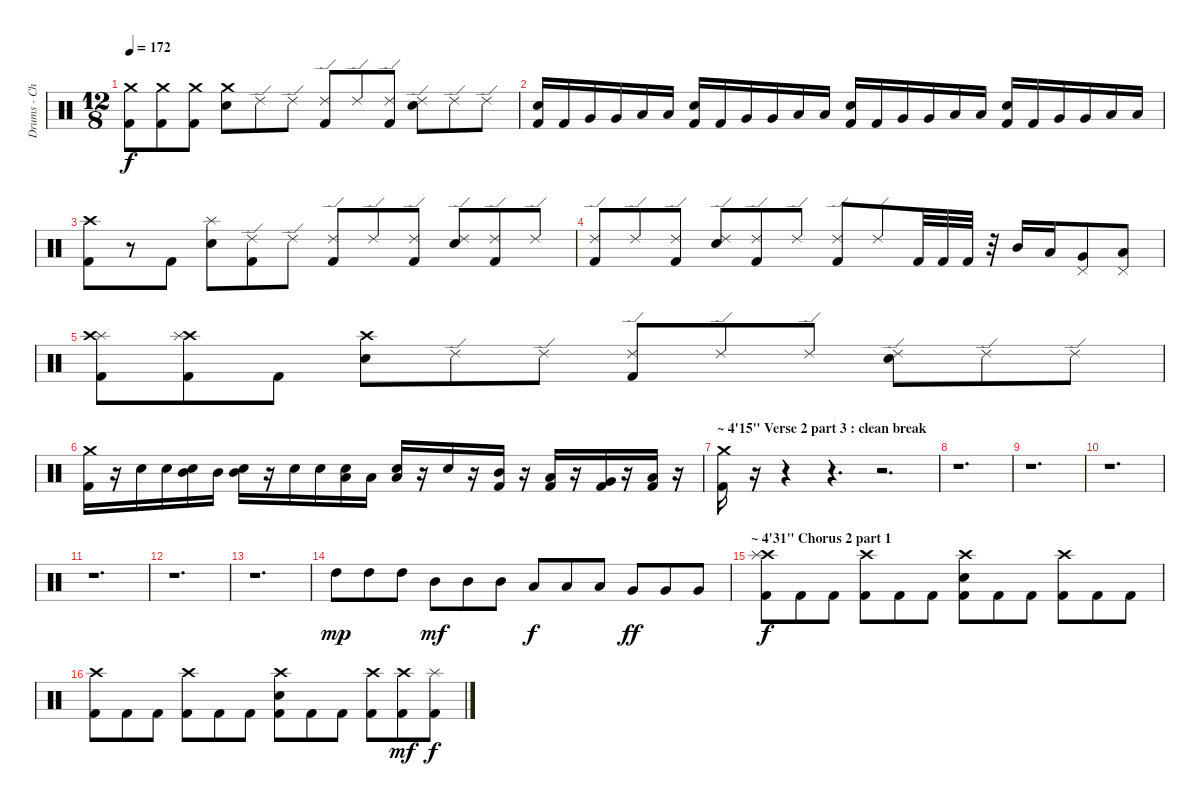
\track ("Drums - Christopher Merzinsky" "Drums - Ch") {instrument percussion}
\staff {score}
\articulation defaults
\ts (12 8)
\tempo 172
\clef neutral
\ks c
("Kick (hit) 2" "Crash medium (hit)").8{dy f} ("Kick (hit) 2" "Crash medium (hit)").8 ("Kick (hit) 2" "Crash medium (hit)").8 ("Crash medium (hit)" "Electric Snare (hit)").8 "Ride (edge) 2".8 "Ride (edge) 2".8 ("Kick (hit) 2" "Ride (edge) 2").8 "Ride (edge) 2".8 ("Kick (hit) 2" "Ride (edge) 2").8 ("Electric Snare (hit)" "Ride (edge) 2").8 "Ride (edge) 2".8 "Ride (edge) 2".8 |
("Electric Snare (hit)" "Kick (hit) 2").16 "Kick (hit) 2".16 "Very Low Tom (hit)".16 "Very Low Tom (hit)".16 "Low Floor Tom (hit)".16 "Low Floor Tom (hit)".16 ("Electric Snare (hit)" "Kick (hit) 2").16 "Kick (hit) 2".16 "Very Low Tom (hit)".16 "Very Low Tom (hit)".16 "Low Floor Tom (hit)".16 "Low Floor Tom (hit)".16 ("Electric Snare (hit)" "Kick (hit) 2").16 "Kick (hit) 2".16 "Very Low Tom (hit)".16 "Very Low Tom (hit)".16 "Low Floor Tom (hit)".16 "Low Floor Tom (hit)".16 ("Electric Snare (hit)" "Kick (hit) 2").16 "Kick (hit) 2".16 "Very Low Tom (hit)".16 "Very Low Tom (hit)".16 "Low Floor Tom (hit)".16 "Low Floor Tom (hit)".16 |
("Crash high (hit)" "Kick (hit) 2").8 r.8 "Kick (hit) 2".8 ("Splash (hit)" "Electric Snare (hit)").8 ("Kick (hit) 2" "Ride (edge) 2").8 "Ride (edge) 2".8 ("Kick (hit) 2" "Ride (edge) 2").8 "Ride (edge) 2".8 ("Kick (hit) 2" "Ride (edge) 2").8 ("Electric Snare (hit)" "Ride (edge) 2").8 ("Kick (hit) 2" "Ride (edge) 2").8 "Ride (edge) 2".8 |
("Kick (hit) 2" "Ride (edge) 2").8 "Ride (edge) 2".8 ("Kick (hit) 2" "Ride (edge) 2").8 ("Electric Snare (hit)" "Ride (edge) 2").8 ("Ride (edge) 2" "Kick (hit) 2").8 "Ride (edge) 2".8 ("Kick (hit) 2" "Ride (edge) 2").8 "Ride (edge) 2".8 "Kick (hit) 2".32 "Kick (hit) 2".32 "Kick (hit) 2".32 r.32 "Mid Tom (hit)".16 "Low Tom (hit)".16 ("Very Low Tom (hit)" "Pedal Hi-Hat (hit)").8 ("Low Floor Tom (hit)" "Pedal Hi-Hat (hit)").8 |
("Kick (hit) 2" "Splash (hit)" "Crash high (hit)").8 ("Kick (hit) 2" "Crash high (hit)" "Splash (hit)").8 "Kick (hit) 2".8 ("Electric Snare (hit)" "Crash high (hit)").8 "Ride (edge) 2".8 "Ride (edge) 2".8 ("Kick (hit) 2" "Ride (edge) 2").8 "Ride (edge) 2".8 "Ride (edge) 2".8 ("Electric Snare (hit)" "Ride (edge) 2").8 "Ride (edge) 2".8 "Ride (edge) 2".8 |
("Kick (hit) 2" "Crash medium (hit)").16 r.16 "Electric Snare (hit)".16 "Electric Snare (hit)".16 ("Electric Snare (hit)" "Mid Tom (hit)").16 "Mid Tom (hit)".16 ("Electric Snare (hit)" "Mid Tom (hit)").16 r.16 "Snare (hit) 2".16 "Snare (hit) 2".16 ("Snare (hit) 2" "Low Tom (hit)").16 "Low Tom (hit)".16 ("Snare (hit) 2" "Low Tom (hit)").16 r.16 "Electric Snare (hit)".16 r.16 ("Kick (hit) 2" "Mid Tom (hit)").16 r.16 ("Kick (hit) 2" "Low Tom (hit)").16 r.16 ("Kick (hit) 2" "Very Low Tom (hit)").16 r.16 ("Kick (hit) 2" "Low Floor Tom (hit)").16 r.16 |
\section ("" "~ 4'15\" Verse 2 part 3 : clean break")
("Crash medium (hit)" "Kick (hit) 2").16 r.16 r.4 r.4{d} r.2{d} |
r.1{d} |
r.1{d} |
r.1{d} |
r.1{d} |
r.1{d} |
r.1{d} |
"High Tom (hit)".8{dy mp} "High Tom (hit)".8 "High Tom (hit)".8 "Mid Tom (hit)".8{dy mf} "Mid Tom (hit)".8 "Mid Tom (hit)".8 "Low Tom (hit)".8{dy f} "Low Tom (hit)".8 "Low Tom (hit)".8 "Very Low Tom (hit)".8{dy ff} "Very Low Tom (hit)".8 "Very Low Tom (hit)".8 |
\section ("" "~ 4'31\" Chorus 2 part 1")
("Kick (hit) 2" "Crash high (hit)" "Splash (hit)").8{dy f} "Kick (hit) 2".8 "Kick (hit) 2".8 ("Kick (hit) 2" "Crash high (hit)").8 "Kick (hit) 2".8 "Kick (hit) 2".8 ("Electric Snare (hit)" "Kick (hit) 2" "Crash high (hit)").8 "Kick (hit) 2".8 "Kick (hit) 2".8 ("Kick (hit) 2" "Crash high (hit)").8 "Kick (hit) 2".8 "Kick (hit) 2".8 |
("Kick (hit) 2" "Crash high (hit)").8 "Kick (hit) 2".8 "Kick (hit) 2".8 ("Kick (hit) 2" "Crash high (hit)").8 "Kick (hit) 2".8 "Kick (hit) 2".8 ("Electric Snare (hit)" "Kick (hit) 2" "Crash high (hit)").8 "Kick (hit) 2".8 "Kick (hit) 2".8 ("Kick (hit) 2" "Crash high (hit)").8 ("Kick (hit) 2" "Crash high (hit)").8{dy mf} ("Kick (hit) 2" "Splash (hit)").8{dy f}
